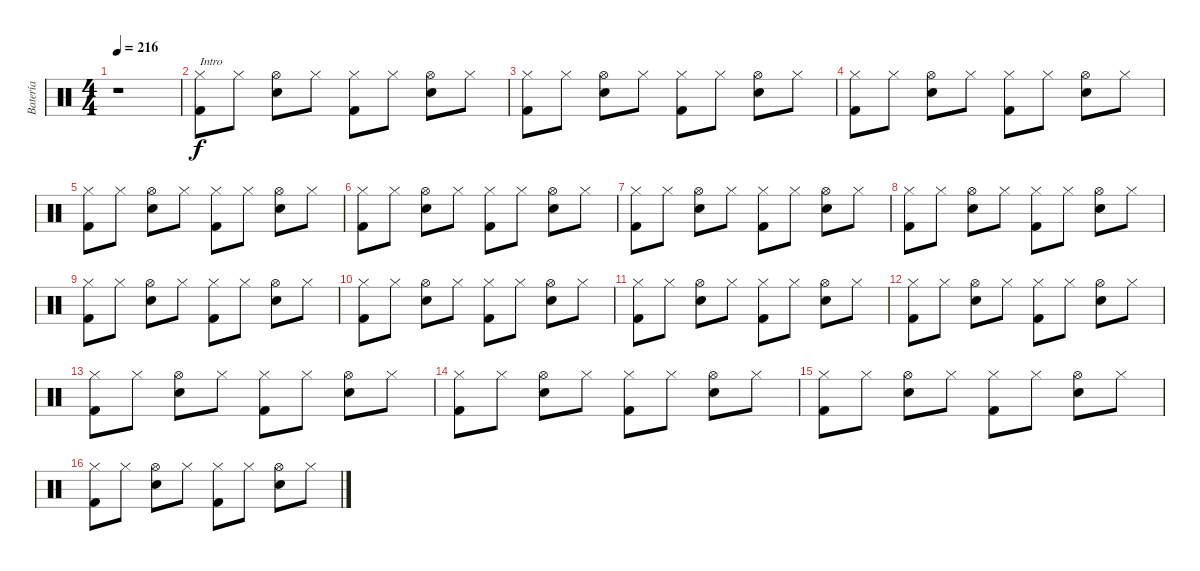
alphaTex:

\track ("Batería" "Batería") {instrument percussion}
\staff {score}
\articulation defaults
\ts (4 4)
\tempo 216
\clef neutral
\ks c
r.1{dy f} |
("Kick (hit) 2" "Hi-Hat (closed)").8{txt "Intro"} "Hi-Hat (closed)".8 ("Electric Snare (hit)" "Hi-Hat (open)").8 "Hi-Hat (closed)".8 ("Kick (hit) 2" "Hi-Hat (closed)").8 "Hi-Hat (closed)".8 ("Electric Snare (hit)" "Hi-Hat (open)").8 "Hi-Hat (closed)".8 |
("Kick (hit) 2" "Hi-Hat (closed)").8 "Hi-Hat (closed)".8 ("Electric Snare (hit)" "Hi-Hat (open)").8 "Hi-Hat (closed)".8 ("Kick (hit) 2" "Hi-Hat (closed)").8 "Hi-Hat (closed)".8 ("Electric Snare (hit)" "Hi-Hat (open)").8 "Hi-Hat (closed)".8 |
("Kick (hit) 2" "Hi-Hat (closed)").8 "Hi-Hat (closed)".8 ("Electric Snare (hit)" "Hi-Hat (open)").8 "Hi-Hat (closed)".8 ("Kick (hit) 2" "Hi-Hat (closed)").8 "Hi-Hat (closed)".8 ("Electric Snare (hit)" "Hi-Hat (open)").8 "Hi-Hat (closed)".8 |
("Kick (hit) 2" "Hi-Hat (closed)").8 "Hi-Hat (closed)".8 ("Electric Snare (hit)" "Hi-Hat (open)").8 "Hi-Hat (closed)".8 ("Kick (hit) 2" "Hi-Hat (closed)").8 "Hi-Hat (closed)".8 ("Electric Snare (hit)" "Hi-Hat (open)").8 "Hi-Hat (closed)".8 |
("Kick (hit) 2" "Hi-Hat (closed)").8 "Hi-Hat (closed)".8 ("Electric Snare (hit)" "Hi-Hat (open)").8 "Hi-Hat (closed)".8 ("Kick (hit) 2" "Hi-Hat (closed)").8 "Hi-Hat (closed)".8 ("Electric Snare (hit)" "Hi-Hat (open)").8 "Hi-Hat (closed)".8 |
("Kick (hit) 2" "Hi-Hat (closed)").8 "Hi-Hat (closed)".8 ("Electric Snare (hit)" "Hi-Hat (open)").8 "Hi-Hat (closed)".8 ("Kick (hit) 2" "Hi-Hat (closed)").8 "Hi-Hat (closed)".8 ("Electric Snare (hit)" "Hi-Hat (open)").8 "Hi-Hat (closed)".8 |
("Kick (hit) 2" "Hi-Hat (closed)").8 "Hi-Hat (closed)".8 ("Electric Snare (hit)" "Hi-Hat (open)").8 "Hi-Hat (closed)".8 ("Kick (hit) 2" "Hi-Hat (closed)").8 "Hi-Hat (closed)".8 ("Electric Snare (hit)" "Hi-Hat (open)").8 "Hi-Hat (closed)".8 |
("Kick (hit) 2" "Hi-Hat (closed)").8 "Hi-Hat (closed)".8 ("Electric Snare (hit)" "Hi-Hat (open)").8 "Hi-Hat (closed)".8 ("Kick (hit) 2" "Hi-Hat (closed)").8 "Hi-Hat (closed)".8 ("Electric Snare (hit)" "Hi-Hat (open)").8 "Hi-Hat (closed)".8 |
("Kick (hit) 2" "Hi-Hat (closed)").8 "Hi-Hat (closed)".8 ("Electric Snare (hit)" "Hi-Hat (open)").8 "Hi-Hat (closed)".8 ("Kick (hit) 2" "Hi-Hat (closed)").8 "Hi-Hat (closed)".8 ("Electric Snare (hit)" "Hi-Hat (open)").8 "Hi-Hat (closed)".8 |
("Kick (hit) 2" "Hi-Hat (closed)").8 "Hi-Hat (closed)".8 ("Electric Snare (hit)" "Hi-Hat (open)").8 "Hi-Hat (closed)".8 ("Kick (hit) 2" "Hi-Hat (closed)").8 "Hi-Hat (closed)".8 ("Electric Snare (hit)" "Hi-Hat (open)").8 "Hi-Hat (closed)".8 |
("Kick (hit) 2" "Hi-Hat (closed)").8 "Hi-Hat (closed)".8 ("Electric Snare (hit)" "Hi-Hat (open)").8 "Hi-Hat (closed)".8 ("Kick (hit) 2" "Hi-Hat (closed)").8 "Hi-Hat (closed)".8 ("Electric Snare (hit)" "Hi-Hat (open)").8 "Hi-Hat (closed)".8 |
("Kick (hit) 2" "Hi-Hat (closed)").8 "Hi-Hat (closed)".8 ("Electric Snare (hit)" "Hi-Hat (open)").8 "Hi-Hat (closed)".8 ("Kick (hit) 2" "Hi-Hat (closed)").8 "Hi-Hat (closed)".8 ("Electric Snare (hit)" "Hi-Hat (open)").8 "Hi-Hat (closed)".8 |
("Kick (hit) 2" "Hi-Hat (closed)").8 "Hi-Hat (closed)".8 ("Electric Snare (hit)" "Hi-Hat (open)").8 "Hi-Hat (closed)".8 ("Kick (hit) 2" "Hi-Hat (closed)").8 "Hi-Hat (closed)".8 ("Electric Snare (hit)" "Hi-Hat (open)").8 "Hi-Hat (closed)".8 |
("Kick (hit) 2" "Hi-Hat (closed)").8 "Hi-Hat (closed)".8 ("Electric Snare (hit)" "Hi-Hat (open)").8 "Hi-Hat (closed)".8 ("Kick (hit) 2" "Hi-Hat (closed)").8 "Hi-Hat (closed)".8 ("Electric Snare (hit)" "Hi-Hat (open)").8 "Hi-Hat (closed)".8 |
("Kick (hit) 2" "Hi-Hat (closed)").8 "Hi-Hat (closed)".8 ("Electric Snare (hit)" "Hi-Hat (open)").8 "Hi-Hat (closed)".8 ("Kick (hit) 2" "Hi-Hat (closed)").8 "Hi-Hat (closed)".8 ("Electric Snare (hit)" "Hi-Hat (open)").8 "Hi-Hat (closed)".8
